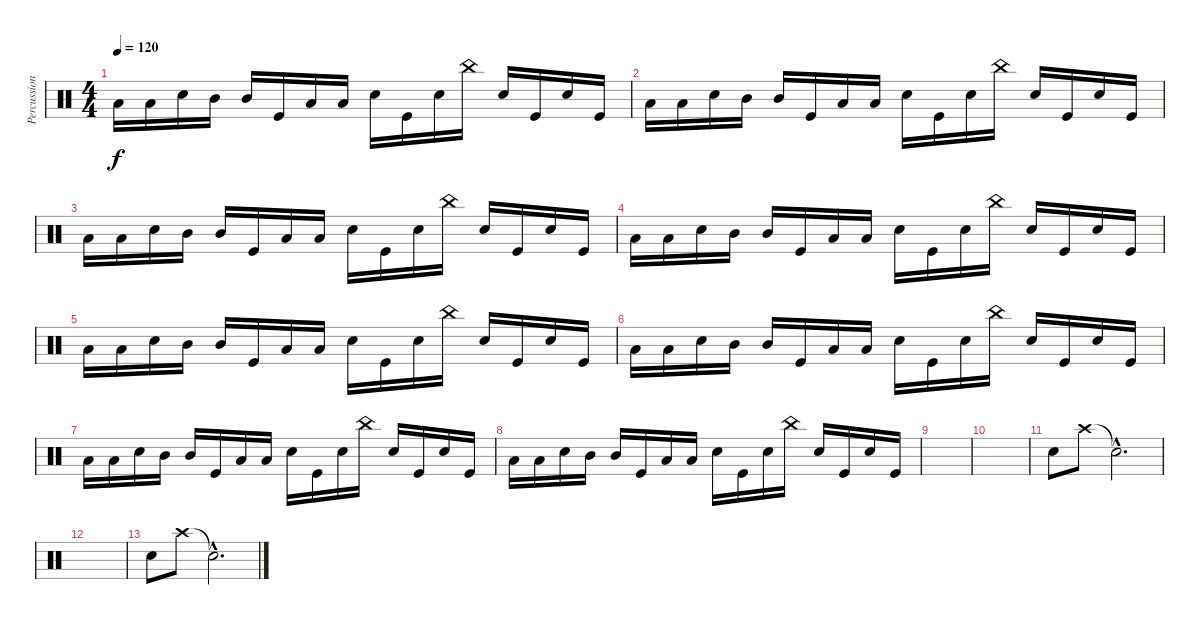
\track ("Percussion" "Percussion") {instrument percussion}
\staff {score}
\articulation defaults
\ts (4 4)
\tempo 120
\clef neutral
\ks c "Low Tom (hit)".16{dy f} "Low Tom (hit)".16 "Electric Snare (hit)".16 "Mid Tom (hit)".16 "Mid Tom (hit)".16 "Kick (hit)".16 "Low Tom (hit)".16 "Low Tom (hit)".16 "Electric Snare (hit)".16 "Kick (hit)".16 "Electric Snare (hit)".16 "China (hit)".16 "Electric Snare (hit)".16 "Kick (hit)".16 "Electric Snare (hit)".16 "Kick (hit)".16
|
"Low Tom (hit)".16 "Low Tom (hit)".16 "Electric Snare (hit)".16 "Mid Tom (hit)".16 "Mid Tom (hit)".16 "Kick (hit)".16 "Low Tom (hit)".16 "Low Tom (hit)".16 "Electric Snare (hit)".16 "Kick (hit)".16 "Electric Snare (hit)".16 "China (hit)".16 "Electric Snare (hit)".16 "Kick (hit)".16 "Electric Snare (hit)".16 "Kick (hit)".16 |
"Low Tom (hit)".16 "Low Tom (hit)".16 "Electric Snare (hit)".16 "Mid Tom (hit)".16 "Mid Tom (hit)".16 "Kick (hit)".16 "Low Tom (hit)".16 "Low Tom (hit)".16 "Electric Snare (hit)".16 "Kick (hit)".16 "Electric Snare (hit)".16 "China (hit)".16 "Electric Snare (hit)".16 "Kick (hit)".16 "Electric Snare (hit)".16 "Kick (hit)".16 |
"Low Tom (hit)".16 "Low Tom (hit)".16 "Electric Snare (hit)".16 "Mid Tom (hit)".16 "Mid Tom (hit)".16 "Kick (hit)".16 "Low Tom (hit)".16 "Low Tom (hit)".16 "Electric Snare (hit)".16 "Kick (hit)".16 "Electric Snare (hit)".16 "China (hit)".16 "Electric Snare (hit)".16 "Kick (hit)".16 "Electric Snare (hit)".16 "Kick (hit)".16 |
"Low Tom (hit)".16 "Low Tom (hit)".16 "Electric Snare (hit)".16 "Mid Tom (hit)".16 "Mid Tom (hit)".16 "Kick (hit)".16 "Low Tom (hit)".16 "Low Tom (hit)".16 "Electric Snare (hit)".16 "Kick (hit)".16 "Electric Snare (hit)".16 "China (hit)".16 "Electric Snare (hit)".16 "Kick (hit)".16 "Electric Snare (hit)".16 "Kick (hit)".16 |
"Low Tom (hit)".16 "Low Tom (hit)".16 "Electric Snare (hit)".16 "Mid Tom (hit)".16 "Mid Tom (hit)".16 "Kick (hit)".16 "Low Tom (hit)".16 "Low Tom (hit)".16 "Electric Snare (hit)".16 "Kick (hit)".16 "Electric Snare (hit)".16 "China (hit)".16 "Electric Snare (hit)".16 "Kick (hit)".16 "Electric Snare (hit)".16 "Kick (hit)".16 |
"Low Tom (hit)".16 "Low Tom (hit)".16 "Electric Snare (hit)".16 "Mid Tom (hit)".16 "Mid Tom (hit)".16 "Kick (hit)".16 "Low Tom (hit)".16 "Low Tom (hit)".16 "Electric Snare (hit)".16 "Kick (hit)".16 "Electric Snare (hit)".16 "China (hit)".16 "Electric Snare (hit)".16 "Kick (hit)".16 "Electric Snare (hit)".16 "Kick (hit)".16 |
"Low Tom (hit)".16 "Low Tom (hit)".16 "Electric Snare (hit)".16 "Mid Tom (hit)".16 "Mid Tom (hit)".16 "Kick (hit)".16 "Low Tom (hit)".16 "Low Tom (hit)".16 "Electric Snare (hit)".16 "Kick (hit)".16 "Electric Snare (hit)".16 "China (hit)".16 "Electric Snare (hit)".16 "Kick (hit)".16 "Electric Snare (hit)".16 "Kick (hit)".16 |
|
|
"Electric Snare (hit)".8 "Crash high (hit)".8 "Snare (hit)"{hac t}.2{d} |
|
"Electric Snare (hit)".8 "Crash high (hit)".8 "Snare (hit)"{hac t}.2{d}
